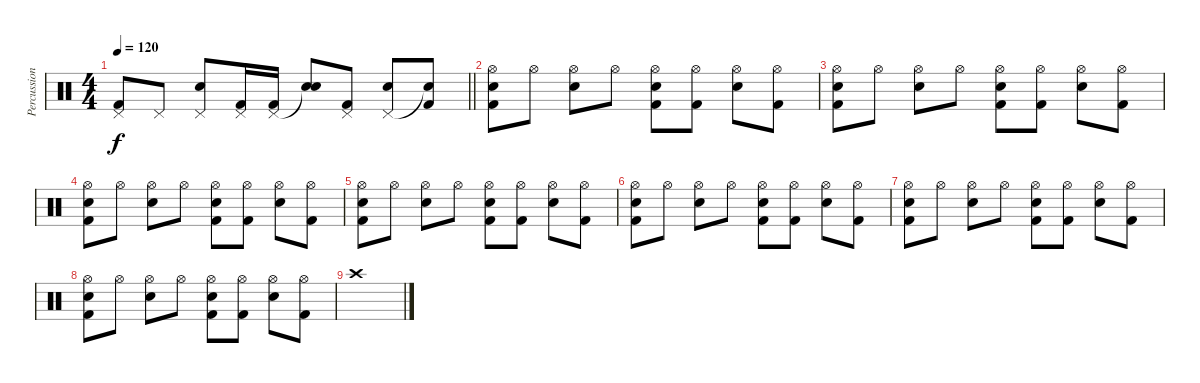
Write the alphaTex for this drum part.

\track ("Percussion" "Percussion") {instrument percussion}
\staff {score}
\articulation defaults
\ts (4 4)
\tempo 120
\clef neutral
\barLineRight lightlight
\ks c
("Pedal Hi-Hat (hit)" "Kick (hit) 2").8{dy f} "Pedal Hi-Hat (hit)".8 ("Pedal Hi-Hat (hit)" "Snare (hit) 2").8 ("Pedal Hi-Hat (hit)" "Kick (hit) 2").16 ("Pedal Hi-Hat (hit)" "Kick (hit) 2").16 ("Snare (hit)"{t} "Snare (hit) 2").8 ("Pedal Hi-Hat (hit)" "Kick (hit) 2").8 ("Pedal Hi-Hat (hit)" "Snare (hit) 2").8 ("Snare (hit)"{t} "Kick (hit) 2").8 |
("Hi-Hat (open)" "Snare (hit) 2" "Kick (hit) 2").8 "Hi-Hat (open)".8 ("Hi-Hat (open)" "Snare (hit) 2").8 "Hi-Hat (open)".8 ("Hi-Hat (open)" "Snare (hit) 2" "Kick (hit) 2").8 ("Hi-Hat (open)" "Kick (hit) 2").8 ("Hi-Hat (open)" "Snare (hit) 2").8 ("Hi-Hat (open)" "Kick (hit) 2").8 |
("Hi-Hat (open)" "Snare (hit) 2" "Kick (hit) 2").8 "Hi-Hat (open)".8 ("Hi-Hat (open)" "Snare (hit) 2").8 "Hi-Hat (open)".8 ("Hi-Hat (open)" "Snare (hit) 2" "Kick (hit) 2").8 ("Hi-Hat (open)" "Kick (hit) 2").8 ("Hi-Hat (open)" "Snare (hit) 2").8 ("Hi-Hat (open)" "Kick (hit) 2").8 |
("Hi-Hat (open)" "Snare (hit) 2" "Kick (hit) 2").8 "Hi-Hat (open)".8 ("Hi-Hat (open)" "Snare (hit) 2").8 "Hi-Hat (open)".8 ("Hi-Hat (open)" "Snare (hit) 2" "Kick (hit) 2").8 ("Hi-Hat (open)" "Kick (hit) 2").8 ("Hi-Hat (open)" "Snare (hit) 2").8 ("Hi-Hat (open)" "Kick (hit) 2").8 |
("Hi-Hat (open)" "Snare (hit) 2" "Kick (hit) 2").8 "Hi-Hat (open)".8 ("Hi-Hat (open)" "Snare (hit) 2").8 "Hi-Hat (open)".8 ("Hi-Hat (open)" "Snare (hit) 2" "Kick (hit) 2").8 ("Hi-Hat (open)" "Kick (hit) 2").8 ("Hi-Hat (open)" "Snare (hit) 2").8 ("Hi-Hat (open)" "Kick (hit) 2").8 |
("Hi-Hat (open)" "Snare (hit) 2" "Kick (hit) 2").8 "Hi-Hat (open)".8 ("Hi-Hat (open)" "Snare (hit) 2").8 "Hi-Hat (open)".8 ("Hi-Hat (open)" "Snare (hit) 2" "Kick (hit) 2").8 ("Hi-Hat (open)" "Kick (hit) 2").8 ("Hi-Hat (open)" "Snare (hit) 2").8 ("Hi-Hat (open)" "Kick (hit) 2").8 |
("Hi-Hat (open)" "Snare (hit) 2" "Kick (hit) 2").8 "Hi-Hat (open)".8 ("Hi-Hat (open)" "Snare (hit) 2").8 "Hi-Hat (open)".8 ("Hi-Hat (open)" "Snare (hit) 2" "Kick (hit) 2").8 ("Hi-Hat (open)" "Kick (hit) 2").8 ("Hi-Hat (open)" "Snare (hit) 2").8 ("Hi-Hat (open)" "Kick (hit) 2").8 |
("Hi-Hat (open)" "Snare (hit) 2" "Kick (hit) 2").8 "Hi-Hat (open)".8 ("Hi-Hat (open)" "Snare (hit) 2").8 "Hi-Hat (open)".8 ("Hi-Hat (open)" "Snare (hit) 2" "Kick (hit) 2").8 ("Hi-Hat (open)" "Kick (hit) 2").8 ("Hi-Hat (open)" "Snare (hit) 2").8 ("Hi-Hat (open)" "Kick (hit) 2").8 |
"Crash high (hit)".1
